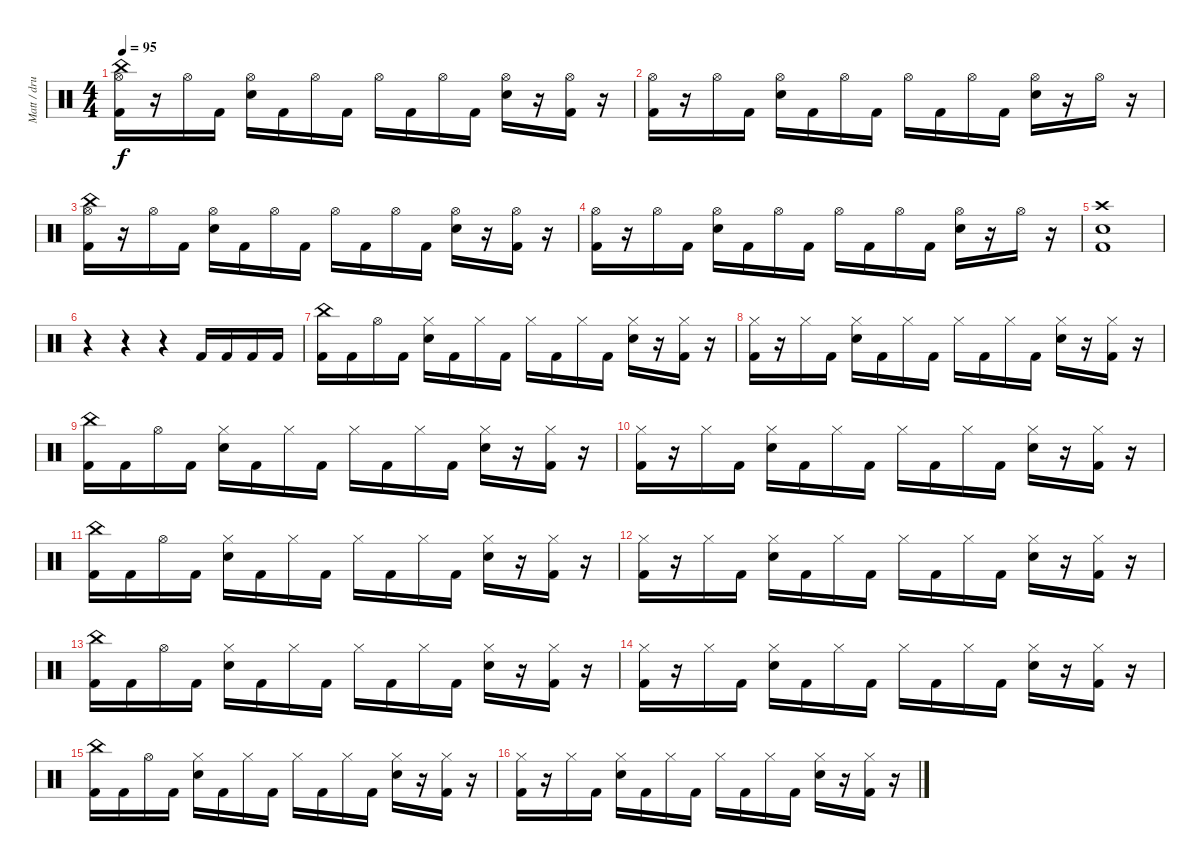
\track ("Matt / drums" "Matt / dru") {instrument percussion}
\staff {score}
\articulation defaults
\ts (4 4)
\tempo 95
\clef neutral
\ks c
("China (hit)" "Hi-Hat (open)" "Kick (hit) 2").16{dy f volume 15} r.16 "Hi-Hat (open)".16 "Kick (hit) 2".16 ("Hi-Hat (open)" "Snare (hit) 2").16 "Kick (hit) 2".16 "Hi-Hat (open)".16 "Kick (hit) 2".16 "Hi-Hat (open)".16 "Kick (hit) 2".16 "Hi-Hat (open)".16 "Kick (hit) 2".16 ("Hi-Hat (open)" "Snare (hit) 2").16 r.16 ("Hi-Hat (open)" "Kick (hit) 2").16 r.16 |
("Hi-Hat (open)" "Kick (hit) 2").16 r.16 "Hi-Hat (open)".16 "Kick (hit) 2".16 ("Hi-Hat (open)" "Snare (hit) 2").16 "Kick (hit) 2".16 "Hi-Hat (open)".16 "Kick (hit) 2".16 "Hi-Hat (open)".16 "Kick (hit) 2".16 "Hi-Hat (open)".16 "Kick (hit) 2".16 ("Hi-Hat (open)" "Snare (hit) 2").16 r.16 "Hi-Hat (open)".16 r.16 |
("China (hit)" "Hi-Hat (open)" "Kick (hit) 2").16 r.16 "Hi-Hat (open)".16 "Kick (hit) 2".16 ("Hi-Hat (open)" "Snare (hit) 2").16 "Kick (hit) 2".16 "Hi-Hat (open)".16 "Kick (hit) 2".16 "Hi-Hat (open)".16 "Kick (hit) 2".16 "Hi-Hat (open)".16 "Kick (hit) 2".16 ("Hi-Hat (open)" "Snare (hit) 2").16 r.16 ("Hi-Hat (open)" "Kick (hit) 2").16 r.16 |
("Hi-Hat (open)" "Kick (hit) 2").16 r.16 "Hi-Hat (open)".16 "Kick (hit) 2".16 ("Hi-Hat (open)" "Snare (hit) 2").16 "Kick (hit) 2".16 "Hi-Hat (open)".16 "Kick (hit) 2".16 "Hi-Hat (open)".16 "Kick (hit) 2".16 "Hi-Hat (open)".16 "Kick (hit) 2".16 ("Hi-Hat (open)" "Snare (hit) 2").16 r.16 "Hi-Hat (open)".16 r.16 |
("Crash high (hit)" "Snare (hit) 2" "Kick (hit) 2").1 |
r.4 r.4 r.4 "Kick (hit) 2".16 "Kick (hit) 2".16 "Kick (hit) 2".16 "Kick (hit) 2".16 |
("China (hit)" "Kick (hit) 2").16 "Kick (hit) 2".16 "Hi-Hat (open)".16 "Kick (hit) 2".16 ("Hi-Hat (closed)" "Snare (hit) 2").16 "Kick (hit) 2".16 "Hi-Hat (closed)".16 "Kick (hit) 2".16 "Hi-Hat (closed)".16 "Kick (hit) 2".16 "Hi-Hat (closed)".16 "Kick (hit) 2".16 ("Hi-Hat (closed)" "Snare (hit) 2").16 r.16 ("Hi-Hat (closed)" "Kick (hit) 2").16 r.16 |
("Hi-Hat (closed)" "Kick (hit) 2").16 r.16 "Hi-Hat (closed)".16 "Kick (hit) 2".16 ("Hi-Hat (closed)" "Snare (hit) 2").16 "Kick (hit) 2".16 "Hi-Hat (closed)".16 "Kick (hit) 2".16 "Hi-Hat (closed)".16 "Kick (hit) 2".16 "Hi-Hat (closed)".16 "Kick (hit) 2".16 ("Hi-Hat (closed)" "Snare (hit) 2").16 r.16 ("Hi-Hat (closed)" "Kick (hit) 2").16 r.16 |
("China (hit)" "Kick (hit) 2").16 "Kick (hit) 2".16 "Hi-Hat (open)".16 "Kick (hit) 2".16 ("Hi-Hat (closed)" "Snare (hit) 2").16 "Kick (hit) 2".16 "Hi-Hat (closed)".16 "Kick (hit) 2".16 "Hi-Hat (closed)".16 "Kick (hit) 2".16 "Hi-Hat (closed)".16 "Kick (hit) 2".16 ("Hi-Hat (closed)" "Snare (hit) 2").16 r.16 ("Hi-Hat (closed)" "Kick (hit) 2").16 r.16 |
("Hi-Hat (closed)" "Kick (hit) 2").16 r.16 "Hi-Hat (closed)".16 "Kick (hit) 2".16 ("Hi-Hat (closed)" "Snare (hit) 2").16 "Kick (hit) 2".16 "Hi-Hat (closed)".16 "Kick (hit) 2".16 "Hi-Hat (closed)".16 "Kick (hit) 2".16 "Hi-Hat (closed)".16 "Kick (hit) 2".16 ("Hi-Hat (closed)" "Snare (hit) 2").16 r.16 ("Hi-Hat (closed)" "Kick (hit) 2").16 r.16 |
("China (hit)" "Kick (hit) 2").16 "Kick (hit) 2".16 "Hi-Hat (open)".16 "Kick (hit) 2".16 ("Hi-Hat (closed)" "Snare (hit) 2").16 "Kick (hit) 2".16 "Hi-Hat (closed)".16 "Kick (hit) 2".16 "Hi-Hat (closed)".16 "Kick (hit) 2".16 "Hi-Hat (closed)".16 "Kick (hit) 2".16 ("Hi-Hat (closed)" "Snare (hit) 2").16 r.16 ("Hi-Hat (closed)" "Kick (hit) 2").16 r.16 |
("Hi-Hat (closed)" "Kick (hit) 2").16 r.16 "Hi-Hat (closed)".16 "Kick (hit) 2".16 ("Hi-Hat (closed)" "Snare (hit) 2").16 "Kick (hit) 2".16 "Hi-Hat (closed)".16 "Kick (hit) 2".16 "Hi-Hat (closed)".16 "Kick (hit) 2".16 "Hi-Hat (closed)".16 "Kick (hit) 2".16 ("Hi-Hat (closed)" "Snare (hit) 2").16 r.16 ("Hi-Hat (closed)" "Kick (hit) 2").16 r.16 |
("China (hit)" "Kick (hit) 2").16 "Kick (hit) 2".16 "Hi-Hat (open)".16 "Kick (hit) 2".16 ("Hi-Hat (closed)" "Snare (hit) 2").16 "Kick (hit) 2".16 "Hi-Hat (closed)".16 "Kick (hit) 2".16 "Hi-Hat (closed)".16 "Kick (hit) 2".16 "Hi-Hat (closed)".16 "Kick (hit) 2".16 ("Hi-Hat (closed)" "Snare (hit) 2").16 r.16 ("Hi-Hat (closed)" "Kick (hit) 2").16 r.16 |
("Hi-Hat (closed)" "Kick (hit) 2").16 r.16 "Hi-Hat (closed)".16 "Kick (hit) 2".16 ("Hi-Hat (closed)" "Snare (hit) 2").16 "Kick (hit) 2".16 "Hi-Hat (closed)".16 "Kick (hit) 2".16 "Hi-Hat (closed)".16 "Kick (hit) 2".16 "Hi-Hat (closed)".16 "Kick (hit) 2".16 ("Hi-Hat (closed)" "Snare (hit) 2").16 r.16 ("Hi-Hat (closed)" "Kick (hit) 2").16 r.16 |
("China (hit)" "Kick (hit) 2").16 "Kick (hit) 2".16 "Hi-Hat (open)".16 "Kick (hit) 2".16 ("Hi-Hat (closed)" "Snare (hit) 2").16 "Kick (hit) 2".16 "Hi-Hat (closed)".16 "Kick (hit) 2".16 "Hi-Hat (closed)".16 "Kick (hit) 2".16 "Hi-Hat (closed)".16 "Kick (hit) 2".16 ("Hi-Hat (closed)" "Snare (hit) 2").16 r.16 ("Hi-Hat (closed)" "Kick (hit) 2").16 r.16 |
("Hi-Hat (closed)" "Kick (hit) 2").16 r.16 "Hi-Hat (closed)".16 "Kick (hit) 2".16 ("Hi-Hat (closed)" "Snare (hit) 2").16 "Kick (hit) 2".16 "Hi-Hat (closed)".16 "Kick (hit) 2".16 "Hi-Hat (closed)".16 "Kick (hit) 2".16 "Hi-Hat (closed)".16 "Kick (hit) 2".16 ("Hi-Hat (closed)" "Snare (hit) 2").16 r.16 ("Hi-Hat (closed)" "Kick (hit) 2").16 r.16
